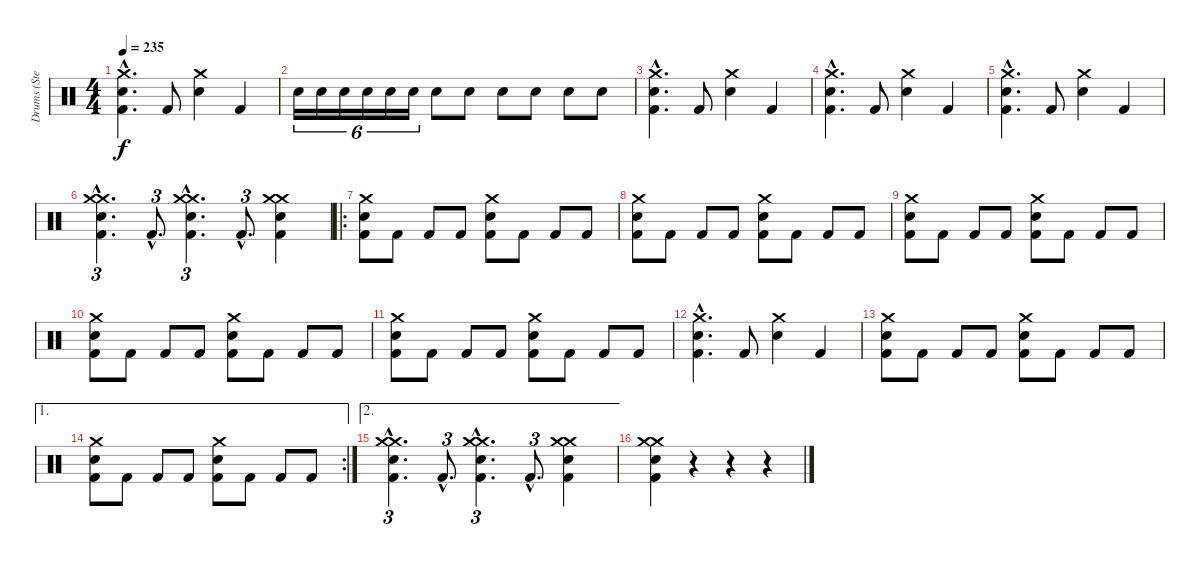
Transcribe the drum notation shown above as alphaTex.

\track ("Drums (Steve Jocz)" "Drums (Ste") {instrument percussion}
\staff {score}
\articulation defaults
\ts (4 4)
\tempo 235
\clef neutral
\ks c
("Crash medium (hit)"{hac} "Electric Snare (hit)"{hac} "Kick (hit) 2"{hac}).4{d dy f} "Kick (hit) 2".8 ("Crash medium (hit)" "Electric Snare (hit)").4 "Kick (hit) 2".4 |
"Electric Snare (hit)".16{tu (6 4)} "Electric Snare (hit)".16{tu (6 4)} "Electric Snare (hit)".16{tu (6 4)} "Electric Snare (hit)".16{tu (6 4)} "Electric Snare (hit)".16{tu (6 4)} "Electric Snare (hit)".16{tu (6 4)} "Electric Snare (hit)".8 "Electric Snare (hit)".8 "Electric Snare (hit)".8 "Electric Snare (hit)".8 "Electric Snare (hit)".8 "Electric Snare (hit)".8 |
("Crash medium (hit)"{hac} "Electric Snare (hit)"{hac} "Kick (hit) 2"{hac}).4{d} "Kick (hit) 2".8 ("Crash medium (hit)" "Electric Snare (hit)").4 "Kick (hit) 2".4 |
("Crash medium (hit)"{hac} "Electric Snare (hit)"{hac} "Kick (hit) 2"{hac}).4{d} "Kick (hit) 2".8 ("Crash medium (hit)" "Electric Snare (hit)").4 "Kick (hit) 2".4 |
("Crash medium (hit)"{hac} "Electric Snare (hit)"{hac} "Kick (hit) 2"{hac}).4{d} "Kick (hit) 2".8 ("Crash medium (hit)" "Electric Snare (hit)").4 "Kick (hit) 2".4 |
("Crash medium (hit)"{hac} "Crash medium (hit)"{hac} "Electric Snare (hit)"{hac} "Kick (hit) 2"{hac}).4{d tu (3 2)} "Kick (hit) 2"{hac}.8{d tu (3 2)} ("Crash medium (hit)"{hac} "Crash medium (hit)"{hac} "Electric Snare (hit)"{hac} "Kick (hit) 2"{hac}).4{d tu (3 2)} "Kick (hit) 2"{hac}.8{d tu (3 2)} ("Crash medium (hit)" "Crash medium (hit)" "Electric Snare (hit)" "Kick (hit) 2").4 |
\ro
("Crash medium (hit)" "Electric Snare (hit)" "Kick (hit) 2").8 "Kick (hit) 2".8 "Kick (hit) 2".8 "Kick (hit) 2".8 ("Crash medium (hit)" "Electric Snare (hit)" "Kick (hit) 2").8 "Kick (hit) 2".8 "Kick (hit) 2".8 "Kick (hit) 2".8 |
("Crash medium (hit)" "Electric Snare (hit)" "Kick (hit) 2").8 "Kick (hit) 2".8 "Kick (hit) 2".8 "Kick (hit) 2".8 ("Crash medium (hit)" "Electric Snare (hit)" "Kick (hit) 2").8 "Kick (hit) 2".8 "Kick (hit) 2".8 "Kick (hit) 2".8 |
("Crash medium (hit)" "Electric Snare (hit)" "Kick (hit) 2").8 "Kick (hit) 2".8 "Kick (hit) 2".8 "Kick (hit) 2".8 ("Crash medium (hit)" "Electric Snare (hit)" "Kick (hit) 2").8 "Kick (hit) 2".8 "Kick (hit) 2".8 "Kick (hit) 2".8 |
("Crash medium (hit)" "Electric Snare (hit)" "Kick (hit) 2").8 "Kick (hit) 2".8 "Kick (hit) 2".8 "Kick (hit) 2".8 ("Crash medium (hit)" "Electric Snare (hit)" "Kick (hit) 2").8 "Kick (hit) 2".8 "Kick (hit) 2".8 "Kick (hit) 2".8 |
("Crash medium (hit)" "Electric Snare (hit)" "Kick (hit) 2").8 "Kick (hit) 2".8 "Kick (hit) 2".8 "Kick (hit) 2".8 ("Crash medium (hit)" "Electric Snare (hit)" "Kick (hit) 2").8 "Kick (hit) 2".8 "Kick (hit) 2".8 "Kick (hit) 2".8 |
("Crash medium (hit)"{hac} "Electric Snare (hit)"{hac} "Kick (hit) 2"{hac}).4{d} "Kick (hit) 2".8 ("Crash medium (hit)" "Electric Snare (hit)").4 "Kick (hit) 2".4 |
("Crash medium (hit)" "Electric Snare (hit)" "Kick (hit) 2").8 "Kick (hit) 2".8 "Kick (hit) 2".8 "Kick (hit) 2".8 ("Crash medium (hit)" "Electric Snare (hit)" "Kick (hit) 2").8 "Kick (hit) 2".8 "Kick (hit) 2".8 "Kick (hit) 2".8 |
\ae 1
\rc 2
("Crash medium (hit)" "Electric Snare (hit)" "Kick (hit) 2").8 "Kick (hit) 2".8 "Kick (hit) 2".8 "Kick (hit) 2".8 ("Crash medium (hit)" "Electric Snare (hit)" "Kick (hit) 2").8 "Kick (hit) 2".8 "Kick (hit) 2".8 "Kick (hit) 2".8 |
\ae 2
("Crash medium (hit)"{hac} "Crash medium (hit)"{hac} "Electric Snare (hit)"{hac} "Kick (hit) 2"{hac}).4{d tu (3 2)} "Kick (hit) 2"{hac}.8{d tu (3 2)} ("Crash medium (hit)"{hac} "Crash medium (hit)"{hac} "Electric Snare (hit)"{hac} "Kick (hit) 2"{hac}).4{d tu (3 2)} "Kick (hit) 2"{hac}.8{d tu (3 2)} ("Crash medium (hit)" "Crash medium (hit)" "Electric Snare (hit)" "Kick (hit) 2").4 |
("Crash medium (hit)" "Crash medium (hit)" "Electric Snare (hit)" "Kick (hit) 2").4 r.4 r.4 r.4
